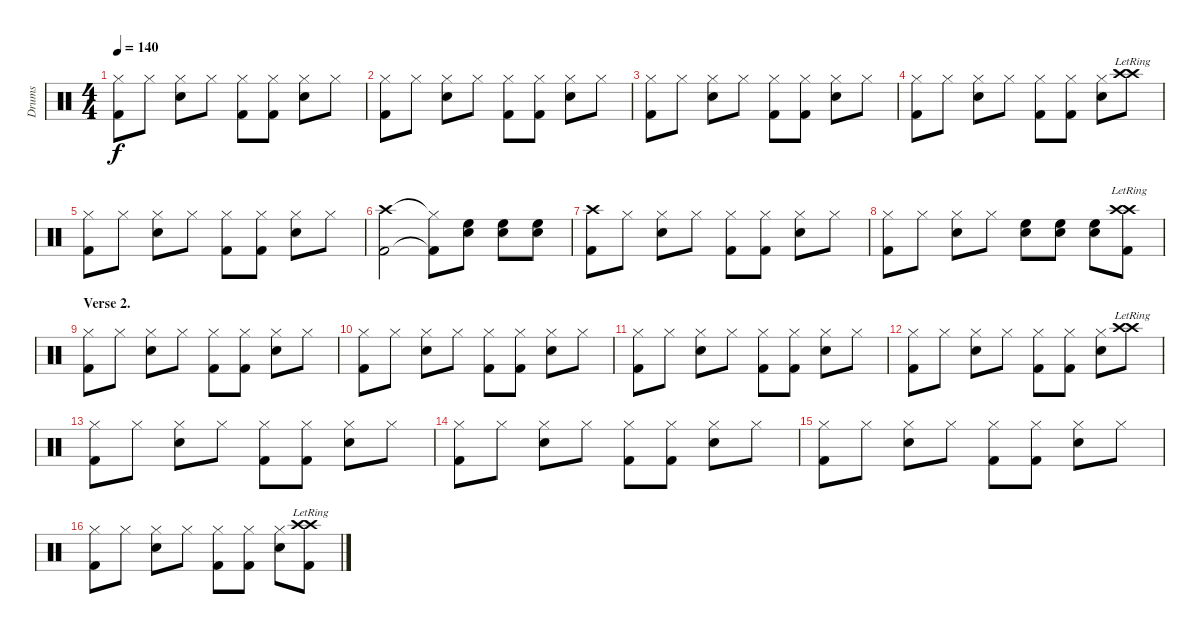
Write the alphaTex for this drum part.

\track ("Drums" "Drums") {instrument percussion}
\staff {score}
\articulation defaults
\ts (4 4)
\tempo 140
\clef neutral
\ks c
("Hi-Hat (closed)" "Kick (hit) 2").8{dy f} "Hi-Hat (closed)".8 ("Hi-Hat (closed)" "Snare (hit) 2").8 "Hi-Hat (closed)".8 ("Hi-Hat (closed)" "Kick (hit) 2").8 ("Hi-Hat (closed)" "Kick (hit) 2").8 ("Hi-Hat (closed)" "Snare (hit) 2").8 "Hi-Hat (closed)".8 |
("Hi-Hat (closed)" "Kick (hit) 2").8 "Hi-Hat (closed)".8 ("Hi-Hat (closed)" "Snare (hit) 2").8 "Hi-Hat (closed)".8 ("Hi-Hat (closed)" "Kick (hit) 2").8 ("Hi-Hat (closed)" "Kick (hit) 2").8 ("Hi-Hat (closed)" "Snare (hit) 2").8 "Hi-Hat (closed)".8 |
("Hi-Hat (closed)" "Kick (hit) 2").8 "Hi-Hat (closed)".8 ("Hi-Hat (closed)" "Snare (hit) 2").8 "Hi-Hat (closed)".8 ("Hi-Hat (closed)" "Kick (hit) 2").8 ("Hi-Hat (closed)" "Kick (hit) 2").8 ("Hi-Hat (closed)" "Snare (hit) 2").8 "Hi-Hat (closed)".8 |
("Hi-Hat (closed)" "Kick (hit) 2").8 "Hi-Hat (closed)".8 ("Hi-Hat (closed)" "Snare (hit) 2").8 "Hi-Hat (closed)".8 ("Hi-Hat (closed)" "Kick (hit) 2").8 ("Hi-Hat (closed)" "Kick (hit) 2").8 ("Hi-Hat (closed)" "Snare (hit) 2").8 ("Crash high (hit)"{lr} "Crash high (hit)"{lr}).8 |
("Hi-Hat (closed)" "Kick (hit) 2").8 "Hi-Hat (closed)".8 ("Hi-Hat (closed)" "Snare (hit) 2").8 "Hi-Hat (closed)".8 ("Hi-Hat (closed)" "Kick (hit) 2").8 ("Hi-Hat (closed)" "Kick (hit) 2").8 ("Hi-Hat (closed)" "Snare (hit) 2").8 "Hi-Hat (closed)".8 |
("Crash high (hit)" "Kick (hit) 2").2 ("Hi-Hat (closed)"{t} "Kick (hit) 2"{t}).8 ("High Floor Tom (hit)" "Snare (hit) 2").8 ("High Floor Tom (hit)" "Snare (hit) 2").8 ("High Floor Tom (hit)" "Snare (hit) 2").8 |
("Crash high (hit)" "Kick (hit) 2").8 "Hi-Hat (closed)".8 ("Hi-Hat (closed)" "Snare (hit) 2").8 "Hi-Hat (closed)".8 ("Hi-Hat (closed)" "Kick (hit) 2").8 ("Hi-Hat (closed)" "Kick (hit) 2").8 ("Hi-Hat (closed)" "Snare (hit) 2").8 "Hi-Hat (closed)".8 |
("Hi-Hat (closed)" "Kick (hit) 2").8 "Hi-Hat (closed)".8 ("Hi-Hat (closed)" "Snare (hit) 2").8 "Hi-Hat (closed)".8 ("High Floor Tom (hit)" "Snare (hit) 2").8 ("High Floor Tom (hit)" "Snare (hit) 2").8 ("High Floor Tom (hit)" "Snare (hit) 2").8 ("Crash high (hit)"{lr} "Crash high (hit)"{lr} "Kick (hit) 2").8 |
\section ("" "Verse 2.")
("Hi-Hat (closed)" "Kick (hit) 2").8 "Hi-Hat (closed)".8 ("Hi-Hat (closed)" "Snare (hit) 2").8 "Hi-Hat (closed)".8 ("Hi-Hat (closed)" "Kick (hit) 2").8 ("Hi-Hat (closed)" "Kick (hit) 2").8 ("Hi-Hat (closed)" "Snare (hit) 2").8 "Hi-Hat (closed)".8 |
("Hi-Hat (closed)" "Kick (hit) 2").8 "Hi-Hat (closed)".8 ("Hi-Hat (closed)" "Snare (hit) 2").8 "Hi-Hat (closed)".8 ("Hi-Hat (closed)" "Kick (hit) 2").8 ("Hi-Hat (closed)" "Kick (hit) 2").8 ("Hi-Hat (closed)" "Snare (hit) 2").8 "Hi-Hat (closed)".8 |
("Hi-Hat (closed)" "Kick (hit) 2").8 "Hi-Hat (closed)".8 ("Hi-Hat (closed)" "Snare (hit) 2").8 "Hi-Hat (closed)".8 ("Hi-Hat (closed)" "Kick (hit) 2").8 ("Hi-Hat (closed)" "Kick (hit) 2").8 ("Hi-Hat (closed)" "Snare (hit) 2").8 "Hi-Hat (closed)".8 |
("Hi-Hat (closed)" "Kick (hit) 2").8 "Hi-Hat (closed)".8 ("Hi-Hat (closed)" "Snare (hit) 2").8 "Hi-Hat (closed)".8 ("Hi-Hat (closed)" "Kick (hit) 2").8 ("Hi-Hat (closed)" "Kick (hit) 2").8 ("Hi-Hat (closed)" "Snare (hit) 2").8 ("Crash high (hit)"{lr} "Crash high (hit)"{lr}).8 |
("Hi-Hat (closed)" "Kick (hit) 2").8 "Hi-Hat (closed)".8 ("Hi-Hat (closed)" "Snare (hit) 2").8 "Hi-Hat (closed)".8 ("Hi-Hat (closed)" "Kick (hit) 2").8 ("Hi-Hat (closed)" "Kick (hit) 2").8 ("Hi-Hat (closed)" "Snare (hit) 2").8 "Hi-Hat (closed)".8 |
("Hi-Hat (closed)" "Kick (hit) 2").8 "Hi-Hat (closed)".8 ("Hi-Hat (closed)" "Snare (hit) 2").8 "Hi-Hat (closed)".8 ("Hi-Hat (closed)" "Kick (hit) 2").8 ("Hi-Hat (closed)" "Kick (hit) 2").8 ("Hi-Hat (closed)" "Snare (hit) 2").8 "Hi-Hat (closed)".8 |
("Hi-Hat (closed)" "Kick (hit) 2").8 "Hi-Hat (closed)".8 ("Hi-Hat (closed)" "Snare (hit) 2").8 "Hi-Hat (closed)".8 ("Hi-Hat (closed)" "Kick (hit) 2").8 ("Hi-Hat (closed)" "Kick (hit) 2").8 ("Hi-Hat (closed)" "Snare (hit) 2").8 "Hi-Hat (closed)".8 |
("Hi-Hat (closed)" "Kick (hit) 2").8 "Hi-Hat (closed)".8 ("Hi-Hat (closed)" "Snare (hit) 2").8 "Hi-Hat (closed)".8 ("Hi-Hat (closed)" "Kick (hit) 2").8 ("Hi-Hat (closed)" "Kick (hit) 2").8 ("Hi-Hat (closed)" "Snare (hit) 2").8 ("Crash high (hit)"{lr} "Crash high (hit)"{lr} "Kick (hit) 2").8
